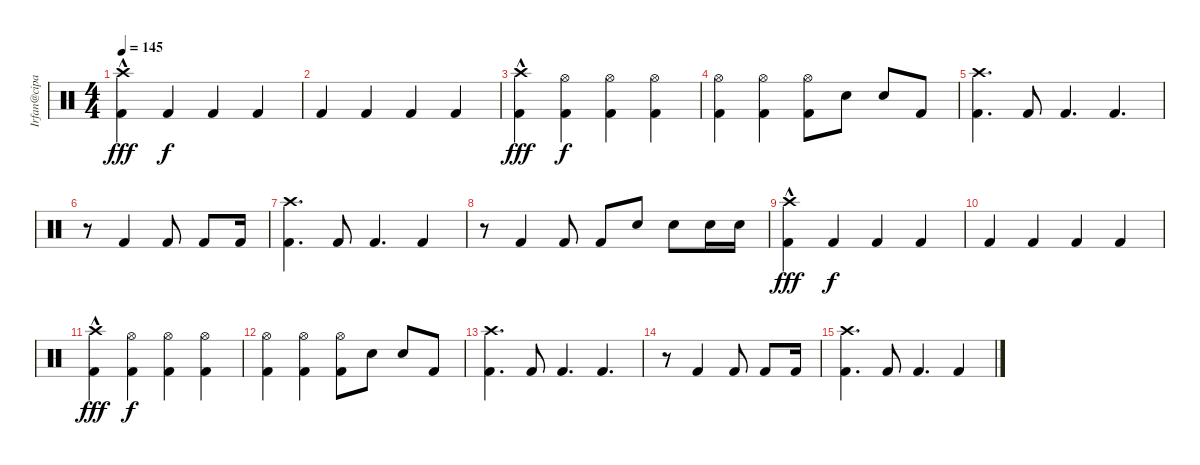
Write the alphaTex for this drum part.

\track ("Irfan@cipan" "Irfan@cipa") {instrument percussion}
\staff {score}
\articulation defaults
\ts (4 4)
\tempo 145
\clef neutral
\ks c
("Crash high (hit)"{hac} "Kick (hit) 2").4{dy fff} "Kick (hit) 2".4{dy f} "Kick (hit) 2".4 "Kick (hit) 2".4 |
"Kick (hit) 2".4 "Kick (hit) 2".4 "Kick (hit) 2".4 "Kick (hit) 2".4 |
("Crash high (hit)"{hac} "Kick (hit) 2").4{dy fff} ("Hi-Hat (open)" "Kick (hit) 2").4{dy f} ("Hi-Hat (open)" "Kick (hit) 2").4 ("Hi-Hat (open)" "Kick (hit) 2").4 |
("Hi-Hat (open)" "Kick (hit) 2").4 ("Hi-Hat (open)" "Kick (hit) 2").4 ("Hi-Hat (open)" "Kick (hit) 2").8 "Electric Snare (hit)".8 "Electric Snare (hit)".8 "Kick (hit) 2".8 |
("Crash high (hit)" "Kick (hit) 2").4{d} "Kick (hit) 2".8 "Kick (hit) 2".4{d} "Kick (hit) 2".4{d} |
r.8 "Kick (hit) 2".4 "Kick (hit) 2".8 "Kick (hit) 2".8 "Kick (hit) 2".16 |
("Crash high (hit)" "Kick (hit) 2").4{d} "Kick (hit) 2".8 "Kick (hit) 2".4{d} "Kick (hit) 2".4 |
r.8 "Kick (hit) 2".4 "Kick (hit) 2".8 "Kick (hit) 2".8 "Electric Snare (hit)".8 "Electric Snare (hit)".8 "Electric Snare (hit)".16 "Electric Snare (hit)".16 |
("Crash high (hit)"{hac} "Kick (hit) 2").4{dy fff} "Kick (hit) 2".4{dy f} "Kick (hit) 2".4 "Kick (hit) 2".4 |
"Kick (hit) 2".4 "Kick (hit) 2".4 "Kick (hit) 2".4 "Kick (hit) 2".4 |
("Crash high (hit)"{hac} "Kick (hit) 2").4{dy fff} ("Hi-Hat (open)" "Kick (hit) 2").4{dy f} ("Hi-Hat (open)" "Kick (hit) 2").4 ("Hi-Hat (open)" "Kick (hit) 2").4 |
("Hi-Hat (open)" "Kick (hit) 2").4 ("Hi-Hat (open)" "Kick (hit) 2").4 ("Hi-Hat (open)" "Kick (hit) 2").8 "Electric Snare (hit)".8 "Electric Snare (hit)".8 "Kick (hit) 2".8 |
("Crash high (hit)" "Kick (hit) 2").4{d} "Kick (hit) 2".8 "Kick (hit) 2".4{d} "Kick (hit) 2".4{d} |
r.8 "Kick (hit) 2".4 "Kick (hit) 2".8 "Kick (hit) 2".8 "Kick (hit) 2".16 |
("Crash high (hit)" "Kick (hit) 2").4{d} "Kick (hit) 2".8 "Kick (hit) 2".4{d} "Kick (hit) 2".4
